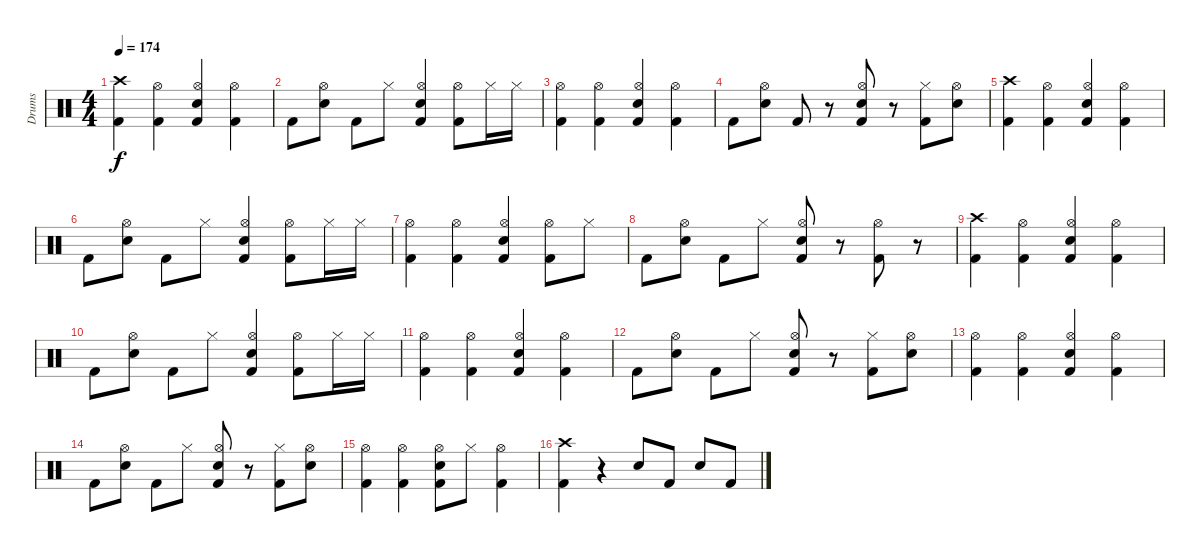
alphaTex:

\track ("Drums" "Drums") {instrument percussion}
\staff {score}
\articulation defaults
\ts (4 4)
\tempo 174
\clef neutral
\ks c
("Crash high (hit)" "Kick (hit) 2").4{dy f} ("Hi-Hat (open)" "Kick (hit) 2").4 ("Hi-Hat (open)" "Electric Snare (hit)" "Kick (hit) 2").4 ("Hi-Hat (open)" "Kick (hit) 2").4 |
"Kick (hit) 2".8 ("Hi-Hat (open)" "Electric Snare (hit)").8 "Kick (hit) 2".8 "Hi-Hat (closed)".8 ("Hi-Hat (open)" "Electric Snare (hit)" "Kick (hit) 2").4 ("Hi-Hat (open)" "Kick (hit) 2").8 "Hi-Hat (closed)".16 "Hi-Hat (closed)".16 |
("Hi-Hat (open)" "Kick (hit) 2").4 ("Hi-Hat (open)" "Kick (hit) 2").4 ("Hi-Hat (open)" "Electric Snare (hit)" "Kick (hit) 2").4 ("Hi-Hat (open)" "Kick (hit) 2").4 |
"Kick (hit) 2".8 ("Hi-Hat (open)" "Electric Snare (hit)").8 "Kick (hit) 2".8 r.8 ("Hi-Hat (open)" "Electric Snare (hit)" "Kick (hit) 2").8 r.8 ("Hi-Hat (closed)" "Kick (hit) 2").8 ("Hi-Hat (open)" "Electric Snare (hit)").8 |
("Crash high (hit)" "Kick (hit) 2").4 ("Hi-Hat (open)" "Kick (hit) 2").4 ("Hi-Hat (open)" "Electric Snare (hit)" "Kick (hit) 2").4 ("Hi-Hat (open)" "Kick (hit) 2").4 |
"Kick (hit) 2".8 ("Hi-Hat (open)" "Electric Snare (hit)").8 "Kick (hit) 2".8 "Hi-Hat (closed)".8 ("Hi-Hat (open)" "Electric Snare (hit)" "Kick (hit) 2").4 ("Hi-Hat (open)" "Kick (hit) 2").8 "Hi-Hat (closed)".16 "Hi-Hat (closed)".16 |
("Hi-Hat (open)" "Kick (hit) 2").4 ("Hi-Hat (open)" "Kick (hit) 2").4 ("Hi-Hat (open)" "Electric Snare (hit)" "Kick (hit) 2").4 ("Hi-Hat (open)" "Kick (hit) 2").8 "Hi-Hat (closed)".8 |
"Kick (hit) 2".8 ("Hi-Hat (open)" "Electric Snare (hit)").8 "Kick (hit) 2".8 "Hi-Hat (closed)".8 ("Hi-Hat (open)" "Electric Snare (hit)" "Kick (hit) 2").8 r.8 ("Hi-Hat (open)" "Kick (hit) 2").8 r.8 |
("Crash high (hit)" "Kick (hit) 2").4 ("Hi-Hat (open)" "Kick (hit) 2").4 ("Hi-Hat (open)" "Electric Snare (hit)" "Kick (hit) 2").4 ("Hi-Hat (open)" "Kick (hit) 2").4 |
"Kick (hit) 2".8 ("Hi-Hat (open)" "Electric Snare (hit)").8 "Kick (hit) 2".8 "Hi-Hat (closed)".8 ("Hi-Hat (open)" "Electric Snare (hit)" "Kick (hit) 2").4 ("Hi-Hat (open)" "Kick (hit) 2").8 "Hi-Hat (closed)".16 "Hi-Hat (closed)".16 |
("Hi-Hat (open)" "Kick (hit) 2").4 ("Hi-Hat (open)" "Kick (hit) 2").4 ("Hi-Hat (open)" "Electric Snare (hit)" "Kick (hit) 2").4 ("Hi-Hat (open)" "Kick (hit) 2").4 |
"Kick (hit) 2".8 ("Hi-Hat (open)" "Electric Snare (hit)").8 "Kick (hit) 2".8 "Hi-Hat (closed)".8 ("Hi-Hat (open)" "Electric Snare (hit)" "Kick (hit) 2").8 r.8 ("Hi-Hat (closed)" "Kick (hit) 2").8 ("Hi-Hat (open)" "Electric Snare (hit)").8 |
("Hi-Hat (open)" "Kick (hit) 2").4 ("Hi-Hat (open)" "Kick (hit) 2").4 ("Hi-Hat (open)" "Electric Snare (hit)" "Kick (hit) 2").4 ("Hi-Hat (open)" "Kick (hit) 2").4 |
"Kick (hit) 2".8 ("Hi-Hat (open)" "Electric Snare (hit)").8 "Kick (hit) 2".8 "Hi-Hat (closed)".8 ("Hi-Hat (open)" "Electric Snare (hit)" "Kick (hit) 2").8 r.8 ("Hi-Hat (closed)" "Kick (hit) 2").8 ("Hi-Hat (open)" "Electric Snare (hit)").8 |
("Hi-Hat (open)" "Kick (hit) 2").4 ("Hi-Hat (open)" "Kick (hit) 2").4 ("Hi-Hat (open)" "Electric Snare (hit)" "Kick (hit) 2").8 "Hi-Hat (closed)".8 ("Hi-Hat (open)" "Kick (hit) 2").4 |
("Crash high (hit)" "Kick (hit) 2").4 r.4 "Electric Snare (hit)".8 "Kick (hit) 2".8 "Electric Snare (hit)".8 "Kick (hit) 2".8
